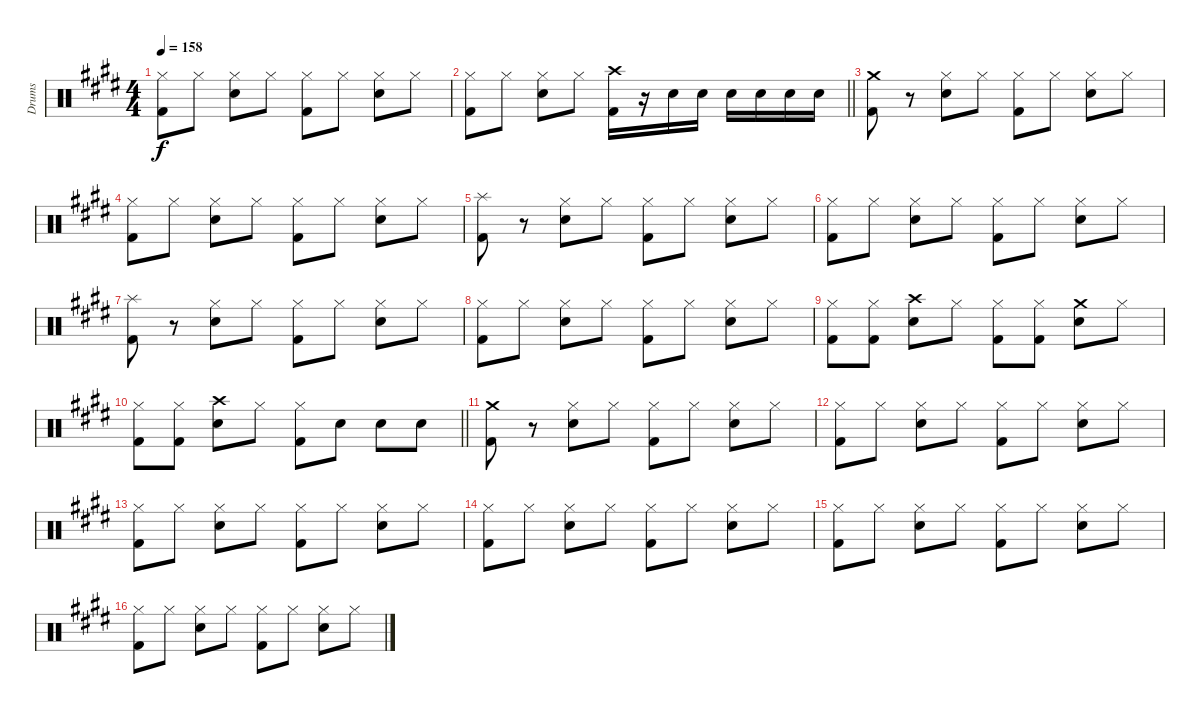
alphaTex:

\track ("Drums" "Drums") {instrument percussion}
\staff {score}
\articulation defaults
\ts (4 4)
\tempo 158
\clef neutral
\ks c#minor
("Hi-Hat (closed)" "Kick (hit) 2").8{dy f} "Hi-Hat (closed)".8 ("Hi-Hat (closed)" "Snare (hit) 2").8 "Hi-Hat (closed)".8 ("Hi-Hat (closed)" "Kick (hit) 2").8 "Hi-Hat (closed)".8 ("Hi-Hat (closed)" "Snare (hit) 2").8 "Hi-Hat (closed)".8 |
\barLineRight lightlight
("Hi-Hat (closed)" "Kick (hit) 2").8 "Hi-Hat (closed)".8 ("Hi-Hat (closed)" "Snare (hit) 2").8 "Hi-Hat (closed)".8 ("Crash high (hit)" "Kick (hit) 2").16 r.16 "Snare (hit) 2".16 "Snare (hit) 2".16 "Snare (hit) 2".16 "Snare (hit) 2".16 "Snare (hit) 2".16 "Snare (hit) 2".16 |
\ks e
("Crash medium (hit)" "Kick (hit) 2").8 r.8 ("Hi-Hat (closed)" "Snare (hit) 2").8 "Hi-Hat (closed)".8 ("Hi-Hat (closed)" "Kick (hit) 2").8 "Hi-Hat (closed)".8 ("Hi-Hat (closed)" "Snare (hit) 2").8 "Hi-Hat (closed)".8 |
\ks c#minor
("Hi-Hat (closed)" "Kick (hit) 2").8 "Hi-Hat (closed)".8 ("Hi-Hat (closed)" "Snare (hit) 2").8 "Hi-Hat (closed)".8 ("Hi-Hat (closed)" "Kick (hit) 2").8 "Hi-Hat (closed)".8 ("Hi-Hat (closed)" "Snare (hit) 2").8 "Hi-Hat (closed)".8 |
\ks e
("Splash (hit)" "Kick (hit) 2").8 r.8 ("Hi-Hat (closed)" "Snare (hit) 2").8 "Hi-Hat (closed)".8 ("Hi-Hat (closed)" "Kick (hit) 2").8 "Hi-Hat (closed)".8 ("Hi-Hat (closed)" "Snare (hit) 2").8 "Hi-Hat (closed)".8 |
\ks c#minor
("Hi-Hat (closed)" "Kick (hit) 2").8 "Hi-Hat (closed)".8 ("Hi-Hat (closed)" "Snare (hit) 2").8 "Hi-Hat (closed)".8 ("Hi-Hat (closed)" "Kick (hit) 2").8 "Hi-Hat (closed)".8 ("Hi-Hat (closed)" "Snare (hit) 2").8 "Hi-Hat (closed)".8 |
\ks e
("Splash (hit)" "Kick (hit) 2").8 r.8 ("Hi-Hat (closed)" "Snare (hit) 2").8 "Hi-Hat (closed)".8 ("Hi-Hat (closed)" "Kick (hit) 2").8 "Hi-Hat (closed)".8 ("Hi-Hat (closed)" "Snare (hit) 2").8 "Hi-Hat (closed)".8 |
\ks c#minor
("Hi-Hat (closed)" "Kick (hit) 2").8 "Hi-Hat (closed)".8 ("Hi-Hat (closed)" "Snare (hit) 2").8 "Hi-Hat (closed)".8 ("Hi-Hat (closed)" "Kick (hit) 2").8 "Hi-Hat (closed)".8 ("Hi-Hat (closed)" "Snare (hit) 2").8 "Hi-Hat (closed)".8 |
\ks e
("Hi-Hat (closed)" "Kick (hit) 2").8 ("Hi-Hat (closed)" "Kick (hit) 2").8 ("Crash high (hit)" "Snare (hit) 2").8 "Hi-Hat (closed)".8 ("Hi-Hat (closed)" "Kick (hit) 2").8 ("Hi-Hat (closed)" "Kick (hit) 2").8 ("Crash medium (hit)" "Snare (hit) 2").8 "Hi-Hat (closed)".8 |
\barLineRight lightlight
\ks c#minor
("Hi-Hat (closed)" "Kick (hit) 2").8 ("Hi-Hat (closed)" "Kick (hit) 2").8 ("Crash high (hit)" "Snare (hit) 2").8 "Hi-Hat (closed)".8 ("Hi-Hat (closed)" "Kick (hit) 2").8 "Snare (hit) 2".8 "Snare (hit) 2".8 "Snare (hit) 2".8 |
\ks e
("Crash medium (hit)" "Kick (hit) 2").8 r.8 ("Hi-Hat (closed)" "Snare (hit) 2").8 "Hi-Hat (closed)".8 ("Hi-Hat (closed)" "Kick (hit) 2").8 "Hi-Hat (closed)".8 ("Hi-Hat (closed)" "Snare (hit) 2").8 "Hi-Hat (closed)".8 |
\ks c#minor
("Hi-Hat (closed)" "Kick (hit) 2").8 "Hi-Hat (closed)".8 ("Hi-Hat (closed)" "Snare (hit) 2").8 "Hi-Hat (closed)".8 ("Hi-Hat (closed)" "Kick (hit) 2").8 "Hi-Hat (closed)".8 ("Hi-Hat (closed)" "Snare (hit) 2").8 "Hi-Hat (closed)".8 |
("Hi-Hat (closed)" "Kick (hit) 2").8 "Hi-Hat (closed)".8 ("Hi-Hat (closed)" "Snare (hit) 2").8 "Hi-Hat (closed)".8 ("Hi-Hat (closed)" "Kick (hit) 2").8 "Hi-Hat (closed)".8 ("Hi-Hat (closed)" "Snare (hit) 2").8 "Hi-Hat (closed)".8 |
("Hi-Hat (closed)" "Kick (hit) 2").8 "Hi-Hat (closed)".8 ("Hi-Hat (closed)" "Snare (hit) 2").8 "Hi-Hat (closed)".8 ("Hi-Hat (closed)" "Kick (hit) 2").8 "Hi-Hat (closed)".8 ("Hi-Hat (closed)" "Snare (hit) 2").8 "Hi-Hat (closed)".8 |
\ks e
("Hi-Hat (closed)" "Kick (hit) 2").8 "Hi-Hat (closed)".8 ("Hi-Hat (closed)" "Snare (hit) 2").8 "Hi-Hat (closed)".8 ("Hi-Hat (closed)" "Kick (hit) 2").8 "Hi-Hat (closed)".8 ("Hi-Hat (closed)" "Snare (hit) 2").8 "Hi-Hat (closed)".8 |
\ks c#minor
("Hi-Hat (closed)" "Kick (hit) 2").8 "Hi-Hat (closed)".8 ("Hi-Hat (closed)" "Snare (hit) 2").8 "Hi-Hat (closed)".8 ("Hi-Hat (closed)" "Kick (hit) 2").8 "Hi-Hat (closed)".8 ("Hi-Hat (closed)" "Snare (hit) 2").8 "Hi-Hat (closed)".8
